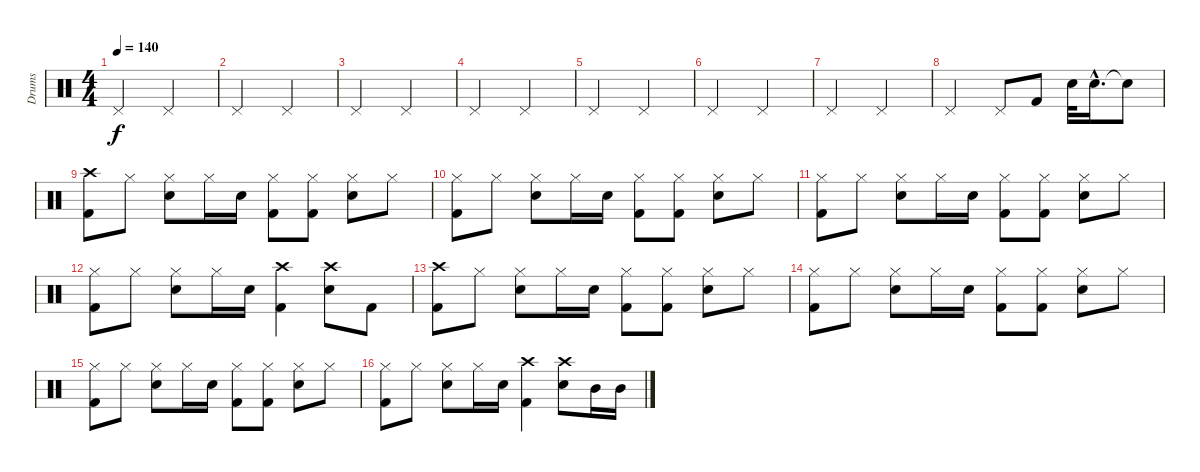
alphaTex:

\track ("Drums" "Drums") {instrument percussion}
\staff {score}
\articulation defaults
\ts (4 4)
\tempo 140
\clef neutral
\ks c "Pedal Hi-Hat (hit)".2{dy f} "Pedal Hi-Hat (hit)".2
|
"Pedal Hi-Hat (hit)".2 "Pedal Hi-Hat (hit)".2 |
"Pedal Hi-Hat (hit)".2 "Pedal Hi-Hat (hit)".2 |
"Pedal Hi-Hat (hit)".2 "Pedal Hi-Hat (hit)".2 |
"Pedal Hi-Hat (hit)".2 "Pedal Hi-Hat (hit)".2 |
"Pedal Hi-Hat (hit)".2 "Pedal Hi-Hat (hit)".2 |
"Pedal Hi-Hat (hit)".2 "Pedal Hi-Hat (hit)".2 |
"Pedal Hi-Hat (hit)".2 "Pedal Hi-Hat (hit)".8 "Kick (hit) 2".8 "Snare (hit) 2".32 "Snare (hit) 2"{hac}.16{d} "Snare (hit)"{t}.8 |
("Crash high (hit)" "Kick (hit) 2").8 "Hi-Hat (closed)".8 ("Hi-Hat (closed)" "Snare (hit) 2").8 "Hi-Hat (closed)".16 "Snare (hit) 2".16 ("Hi-Hat (closed)" "Kick (hit) 2").8 ("Hi-Hat (closed)" "Kick (hit) 2").8 ("Hi-Hat (closed)" "Snare (hit) 2").8 "Hi-Hat (closed)".8 |
("Hi-Hat (closed)" "Kick (hit) 2").8 "Hi-Hat (closed)".8 ("Hi-Hat (closed)" "Snare (hit) 2").8 "Hi-Hat (closed)".16 "Snare (hit) 2".16 ("Hi-Hat (closed)" "Kick (hit) 2").8 ("Hi-Hat (closed)" "Kick (hit) 2").8 ("Hi-Hat (closed)" "Snare (hit) 2").8 "Hi-Hat (closed)".8 |
("Hi-Hat (closed)" "Kick (hit) 2").8 "Hi-Hat (closed)".8 ("Hi-Hat (closed)" "Snare (hit) 2").8 "Hi-Hat (closed)".16 "Snare (hit) 2".16 ("Hi-Hat (closed)" "Kick (hit) 2").8 ("Hi-Hat (closed)" "Kick (hit) 2").8 ("Hi-Hat (closed)" "Snare (hit) 2").8 "Hi-Hat (closed)".8 |
("Hi-Hat (closed)" "Kick (hit) 2").8 "Hi-Hat (closed)".8 ("Hi-Hat (closed)" "Snare (hit) 2").8 "Hi-Hat (closed)".16 "Snare (hit) 2".16 ("Crash high (hit)" "Kick (hit) 2").4 ("Crash high (hit)" "Snare (hit) 2").8 "Kick (hit) 2".8 |
("Crash high (hit)" "Kick (hit) 2").8 "Hi-Hat (closed)".8 ("Hi-Hat (closed)" "Snare (hit) 2").8 "Hi-Hat (closed)".16 "Snare (hit) 2".16 ("Hi-Hat (closed)" "Kick (hit) 2").8 ("Hi-Hat (closed)" "Kick (hit) 2").8 ("Hi-Hat (closed)" "Snare (hit) 2").8 "Hi-Hat (closed)".8 |
("Hi-Hat (closed)" "Kick (hit) 2").8 "Hi-Hat (closed)".8 ("Hi-Hat (closed)" "Snare (hit) 2").8 "Hi-Hat (closed)".16 "Snare (hit) 2".16 ("Hi-Hat (closed)" "Kick (hit) 2").8 ("Hi-Hat (closed)" "Kick (hit) 2").8 ("Hi-Hat (closed)" "Snare (hit) 2").8 "Hi-Hat (closed)".8 |
("Hi-Hat (closed)" "Kick (hit) 2").8 "Hi-Hat (closed)".8 ("Hi-Hat (closed)" "Snare (hit) 2").8 "Hi-Hat (closed)".16 "Snare (hit) 2".16 ("Hi-Hat (closed)" "Kick (hit) 2").8 ("Hi-Hat (closed)" "Kick (hit) 2").8 ("Hi-Hat (closed)" "Snare (hit) 2").8 "Hi-Hat (closed)".8 |
("Hi-Hat (closed)" "Kick (hit) 2").8 "Hi-Hat (closed)".8 ("Hi-Hat (closed)" "Snare (hit) 2").8 "Hi-Hat (closed)".16 "Snare (hit) 2".16 ("Crash high (hit)" "Kick (hit) 2").4 ("Crash high (hit)" "Snare (hit) 2").8 "Mid Tom (hit)".16 "Mid Tom (hit)".16
